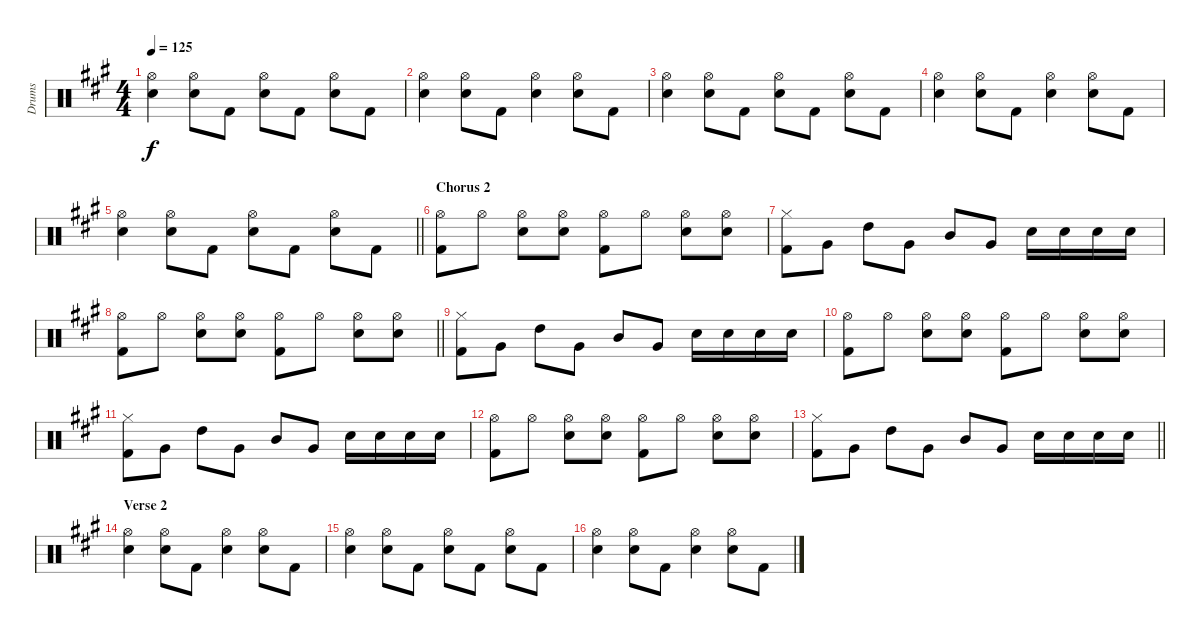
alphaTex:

\track ("Drums" "Drums") {instrument percussion}
\staff {score}
\articulation defaults
\ts (4 4)
\tempo 125
\clef neutral
\ks a
("Hi-Hat (open)" "Electric Snare (hit)").4{dy f} ("Hi-Hat (open)" "Electric Snare (hit)").8 "Kick (hit) 2".8 ("Hi-Hat (open)" "Electric Snare (hit)").8 "Kick (hit) 2".8 ("Hi-Hat (open)" "Electric Snare (hit)").8 "Kick (hit) 2".8 |
("Hi-Hat (open)" "Electric Snare (hit)").4 ("Hi-Hat (open)" "Electric Snare (hit)").8 "Kick (hit) 2".8 ("Hi-Hat (open)" "Electric Snare (hit)").4 ("Hi-Hat (open)" "Electric Snare (hit)").8 "Kick (hit) 2".8 |
("Hi-Hat (open)" "Electric Snare (hit)").4 ("Hi-Hat (open)" "Electric Snare (hit)").8 "Kick (hit) 2".8 ("Hi-Hat (open)" "Electric Snare (hit)").8 "Kick (hit) 2".8 ("Hi-Hat (open)" "Electric Snare (hit)").8 "Kick (hit) 2".8 |
("Hi-Hat (open)" "Electric Snare (hit)").4 ("Hi-Hat (open)" "Electric Snare (hit)").8 "Kick (hit) 2".8 ("Hi-Hat (open)" "Electric Snare (hit)").4 ("Hi-Hat (open)" "Electric Snare (hit)").8 "Kick (hit) 2".8 |
\barLineRight lightlight
("Hi-Hat (open)" "Electric Snare (hit)").4 ("Hi-Hat (open)" "Electric Snare (hit)").8 "Kick (hit) 2".8 ("Hi-Hat (open)" "Electric Snare (hit)").8 "Kick (hit) 2".8 ("Hi-Hat (open)" "Electric Snare (hit)").8 "Kick (hit) 2".8 |
\section ("" "Chorus 2")
("Hi-Hat (open)" "Kick (hit) 2").8 "Hi-Hat (open)".8 ("Hi-Hat (open)" "Electric Snare (hit)").8 ("Hi-Hat (open)" "Electric Snare (hit)").8 ("Hi-Hat (open)" "Kick (hit) 2").8 "Hi-Hat (open)".8 ("Hi-Hat (open)" "Electric Snare (hit)").8 ("Hi-Hat (open)" "Electric Snare (hit)").8 |
("Hi-Hat (closed)" "Kick (hit) 2").8 "Very Low Tom (hit)".8 "High Tom (hit)".8 "Very Low Tom (hit)".8 "Mid Tom (hit)".8 "Very Low Tom (hit)".8 "Electric Snare (hit)".16 "Electric Snare (hit)".16 "Electric Snare (hit)".16 "Electric Snare (hit)".16 |
\barLineRight lightlight
("Hi-Hat (open)" "Kick (hit) 2").8 "Hi-Hat (open)".8 ("Hi-Hat (open)" "Electric Snare (hit)").8 ("Hi-Hat (open)" "Electric Snare (hit)").8 ("Hi-Hat (open)" "Kick (hit) 2").8 "Hi-Hat (open)".8 ("Hi-Hat (open)" "Electric Snare (hit)").8 ("Hi-Hat (open)" "Electric Snare (hit)").8 |
("Hi-Hat (closed)" "Kick (hit) 2").8 "Very Low Tom (hit)".8 "High Tom (hit)".8 "Very Low Tom (hit)".8 "Mid Tom (hit)".8 "Very Low Tom (hit)".8 "Electric Snare (hit)".16 "Electric Snare (hit)".16 "Electric Snare (hit)".16 "Electric Snare (hit)".16 |
("Hi-Hat (open)" "Kick (hit) 2").8 "Hi-Hat (open)".8 ("Hi-Hat (open)" "Electric Snare (hit)").8 ("Hi-Hat (open)" "Electric Snare (hit)").8 ("Hi-Hat (open)" "Kick (hit) 2").8 "Hi-Hat (open)".8 ("Hi-Hat (open)" "Electric Snare (hit)").8 ("Hi-Hat (open)" "Electric Snare (hit)").8 |
("Hi-Hat (closed)" "Kick (hit) 2").8 "Very Low Tom (hit)".8 "High Tom (hit)".8 "Very Low Tom (hit)".8 "Mid Tom (hit)".8 "Very Low Tom (hit)".8 "Electric Snare (hit)".16 "Electric Snare (hit)".16 "Electric Snare (hit)".16 "Electric Snare (hit)".16 |
("Hi-Hat (open)" "Kick (hit) 2").8 "Hi-Hat (open)".8 ("Hi-Hat (open)" "Electric Snare (hit)").8 ("Hi-Hat (open)" "Electric Snare (hit)").8 ("Hi-Hat (open)" "Kick (hit) 2").8 "Hi-Hat (open)".8 ("Hi-Hat (open)" "Electric Snare (hit)").8 ("Hi-Hat (open)" "Electric Snare (hit)").8 |
\barLineRight lightlight
("Hi-Hat (closed)" "Kick (hit) 2").8 "Very Low Tom (hit)".8 "High Tom (hit)".8 "Very Low Tom (hit)".8 "Mid Tom (hit)".8 "Very Low Tom (hit)".8 "Electric Snare (hit)".16 "Electric Snare (hit)".16 "Electric Snare (hit)".16 "Electric Snare (hit)".16 |
\section ("" "Verse 2")
("Hi-Hat (open)" "Electric Snare (hit)").4 ("Hi-Hat (open)" "Electric Snare (hit)").8 "Kick (hit) 2".8 ("Hi-Hat (open)" "Electric Snare (hit)").4 ("Hi-Hat (open)" "Electric Snare (hit)").8 "Kick (hit) 2".8 |
("Hi-Hat (open)" "Electric Snare (hit)").4 ("Hi-Hat (open)" "Electric Snare (hit)").8 "Kick (hit) 2".8 ("Hi-Hat (open)" "Electric Snare (hit)").8 "Kick (hit) 2".8 ("Hi-Hat (open)" "Electric Snare (hit)").8 "Kick (hit) 2".8 |
("Hi-Hat (open)" "Electric Snare (hit)").4 ("Hi-Hat (open)" "Electric Snare (hit)").8 "Kick (hit) 2".8 ("Hi-Hat (open)" "Electric Snare (hit)").4 ("Hi-Hat (open)" "Electric Snare (hit)").8 "Kick (hit) 2".8
